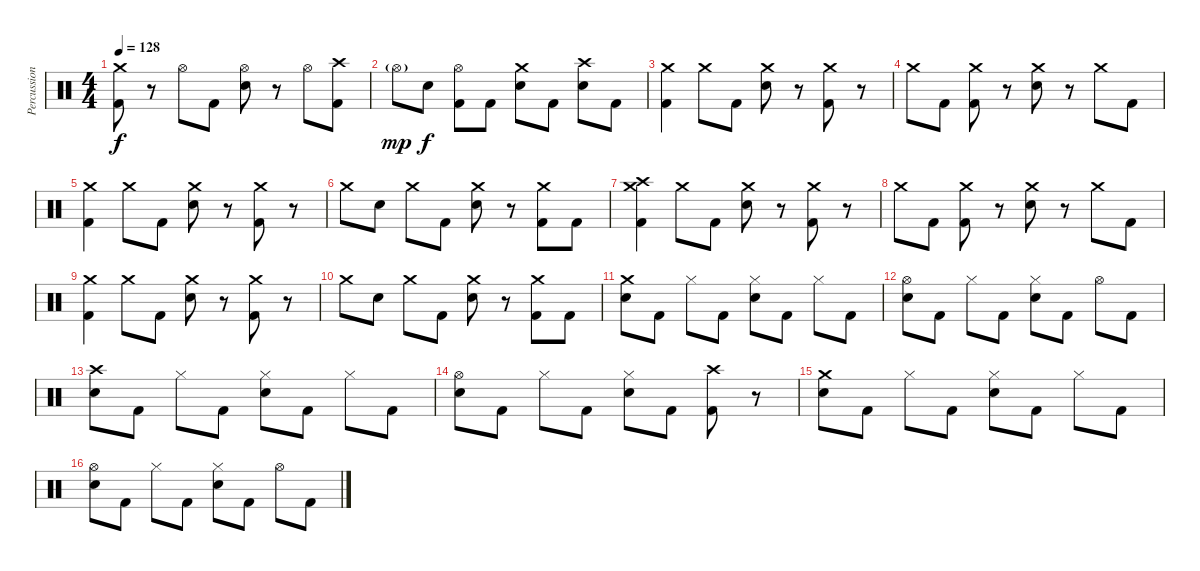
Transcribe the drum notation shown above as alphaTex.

\track ("Percussion" "Percussion") {instrument percussion}
\staff {score}
\articulation defaults
\ts (4 4)
\tempo 128
\clef neutral
\ks c
("Crash medium (hit)" "Kick (hit) 2").8{dy f} r.8 "Hi-Hat (open)".8 "Kick (hit) 2".8 ("Hi-Hat (open)" "Snare (hit) 2").8 r.8 "Hi-Hat (open)".8 ("Crash high (hit)" "Kick (hit) 2").8 |
"Hi-Hat (open)"{g}.8{dy mp} "Snare (hit) 2".8{dy f} ("Hi-Hat (open)" "Kick (hit) 2").8 "Kick (hit) 2".8 ("Crash medium (hit)" "Snare (hit) 2").8 "Kick (hit) 2".8 ("Crash high (hit)" "Snare (hit) 2").8 "Kick (hit) 2".8 |
("Crash medium (hit)" "Kick (hit) 2").4 "Crash medium (hit)".8 "Kick (hit) 2".8 ("Crash medium (hit)" "Snare (hit) 2").8 r.8 ("Crash medium (hit)" "Kick (hit) 2").8 r.8 |
"Crash medium (hit)".8 "Kick (hit) 2".8 ("Crash medium (hit)" "Kick (hit) 2").8 r.8 ("Crash medium (hit)" "Snare (hit) 2").8 r.8 "Crash medium (hit)".8 "Kick (hit) 2".8 |
("Crash medium (hit)" "Kick (hit) 2").4 "Crash medium (hit)".8 "Kick (hit) 2".8 ("Crash medium (hit)" "Snare (hit) 2").8 r.8 ("Crash medium (hit)" "Kick (hit) 2").8 r.8 |
"Crash medium (hit)".8 "Snare (hit) 2".8 "Crash medium (hit)".8 "Kick (hit) 2".8 ("Crash medium (hit)" "Snare (hit) 2").8 r.8 ("Crash medium (hit)" "Kick (hit) 2").8 "Kick (hit) 2".8 |
("Crash high (hit)" "Crash medium (hit)" "Kick (hit) 2").4 "Crash medium (hit)".8 "Kick (hit) 2".8 ("Crash medium (hit)" "Snare (hit) 2").8 r.8 ("Crash medium (hit)" "Kick (hit) 2").8 r.8 |
"Crash medium (hit)".8 "Kick (hit) 2".8 ("Crash medium (hit)" "Kick (hit) 2").8 r.8 ("Crash medium (hit)" "Snare (hit) 2").8 r.8 "Crash medium (hit)".8 "Kick (hit) 2".8 |
("Crash medium (hit)" "Kick (hit) 2").4 "Crash medium (hit)".8 "Kick (hit) 2".8 ("Crash medium (hit)" "Snare (hit) 2").8 r.8 ("Crash medium (hit)" "Kick (hit) 2").8 r.8 |
"Crash medium (hit)".8 "Snare (hit) 2".8 "Crash medium (hit)".8 "Kick (hit) 2".8 ("Crash medium (hit)" "Snare (hit) 2").8 r.8 ("Crash medium (hit)" "Kick (hit) 2").8 "Kick (hit) 2".8 |
("Crash medium (hit)" "Snare (hit) 2").8 "Kick (hit) 2".8 "Hi-Hat (closed)".8 "Kick (hit) 2".8 ("Hi-Hat (closed)" "Snare (hit) 2").8 "Kick (hit) 2".8 "Hi-Hat (closed)".8 "Kick (hit) 2".8 |
("Hi-Hat (open)" "Snare (hit) 2").8 "Kick (hit) 2".8 "Hi-Hat (closed)".8 "Kick (hit) 2".8 ("Hi-Hat (closed)" "Snare (hit) 2").8 "Kick (hit) 2".8 "Hi-Hat (open)".8 "Kick (hit) 2".8 |
("Crash high (hit)" "Snare (hit) 2").8 "Kick (hit) 2".8 "Hi-Hat (closed)".8 "Kick (hit) 2".8 ("Hi-Hat (closed)" "Snare (hit) 2").8 "Kick (hit) 2".8 "Hi-Hat (closed)".8 "Kick (hit) 2".8 |
("Hi-Hat (open)" "Snare (hit) 2").8 "Kick (hit) 2".8 "Hi-Hat (closed)".8 "Kick (hit) 2".8 ("Hi-Hat (closed)" "Snare (hit) 2").8 "Kick (hit) 2".8 ("Crash high (hit)" "Kick (hit) 2").8 r.8 |
("Crash medium (hit)" "Snare (hit) 2").8 "Kick (hit) 2".8 "Hi-Hat (closed)".8 "Kick (hit) 2".8 ("Hi-Hat (closed)" "Snare (hit) 2").8 "Kick (hit) 2".8 "Hi-Hat (closed)".8 "Kick (hit) 2".8 |
("Hi-Hat (open)" "Snare (hit) 2").8 "Kick (hit) 2".8 "Hi-Hat (closed)".8 "Kick (hit) 2".8 ("Hi-Hat (closed)" "Snare (hit) 2").8 "Kick (hit) 2".8 "Hi-Hat (open)".8 "Kick (hit) 2".8
